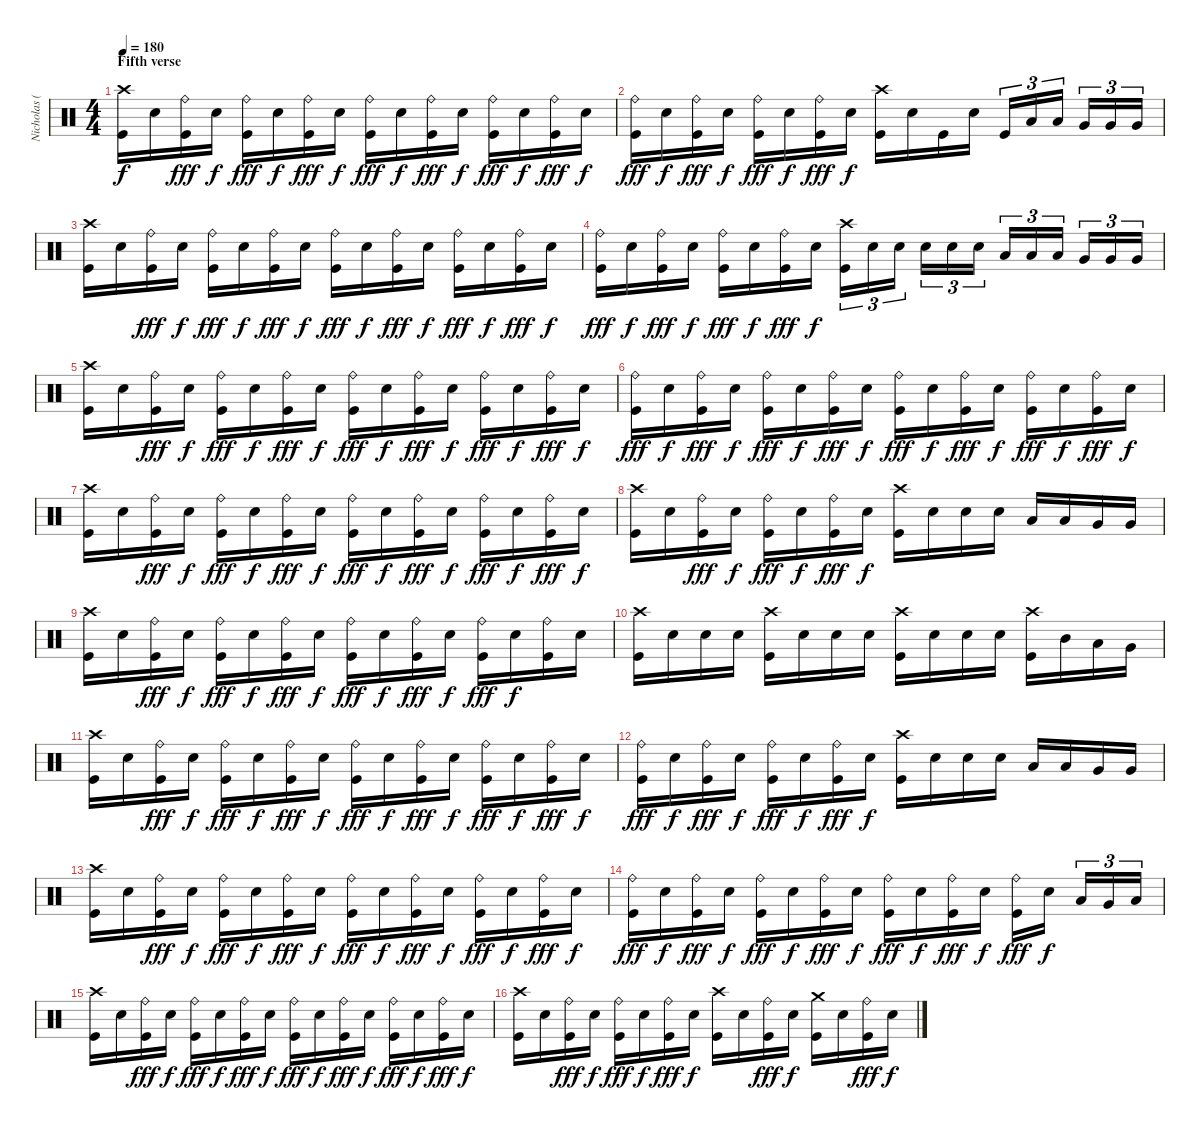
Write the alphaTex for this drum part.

\track ("Nicholas (Drums)" "Nicholas (") {instrument percussion}
\staff {score}
\articulation defaults
\ts (4 4)
\section ("" "Fifth verse")
\tempo 180
\clef neutral
\ks c
("Crash high (hit)" "Kick (hit)").16{dy f} "Electric Snare (hit)".16 ("Ride (bell)" "Kick (hit)").16{dy fff} "Electric Snare (hit)".16{dy f} ("Ride (bell)" "Kick (hit)").16{dy fff} "Electric Snare (hit)".16{dy f} ("Ride (bell)" "Kick (hit)").16{dy fff} "Electric Snare (hit)".16{dy f} ("Ride (bell)" "Kick (hit)").16{dy fff} "Electric Snare (hit)".16{dy f} ("Ride (bell)" "Kick (hit)").16{dy fff} "Electric Snare (hit)".16{dy f} ("Ride (bell)" "Kick (hit)").16{dy fff} "Electric Snare (hit)".16{dy f} ("Ride (bell)" "Kick (hit)").16{dy fff} "Electric Snare (hit)".16{dy f} |
("Ride (bell)" "Kick (hit)").16{dy fff} "Electric Snare (hit)".16{dy f} ("Ride (bell)" "Kick (hit)").16{dy fff} "Electric Snare (hit)".16{dy f} ("Ride (bell)" "Kick (hit)").16{dy fff} "Electric Snare (hit)".16{dy f} ("Ride (bell)" "Kick (hit)").16{dy fff} "Electric Snare (hit)".16{dy f} ("Crash high (hit)" "Kick (hit)").16 "Electric Snare (hit)".16 "Kick (hit)".16 "Electric Snare (hit)".16 "Kick (hit)".16{tu (3 2)} "Low Tom (hit)".16{tu (3 2)} "Low Tom (hit)".16{tu (3 2)} "Very Low Tom (hit)".16{tu (3 2)} "Very Low Tom (hit)".16{tu (3 2)} "Very Low Tom (hit)".16{tu (3 2)} |
("Crash high (hit)" "Kick (hit)").16 "Electric Snare (hit)".16 ("Ride (bell)" "Kick (hit)").16{dy fff} "Electric Snare (hit)".16{dy f} ("Ride (bell)" "Kick (hit)").16{dy fff} "Electric Snare (hit)".16{dy f} ("Ride (bell)" "Kick (hit)").16{dy fff} "Electric Snare (hit)".16{dy f} ("Ride (bell)" "Kick (hit)").16{dy fff} "Electric Snare (hit)".16{dy f} ("Ride (bell)" "Kick (hit)").16{dy fff} "Electric Snare (hit)".16{dy f} ("Ride (bell)" "Kick (hit)").16{dy fff} "Electric Snare (hit)".16{dy f} ("Ride (bell)" "Kick (hit)").16{dy fff} "Electric Snare (hit)".16{dy f} |
("Ride (bell)" "Kick (hit)").16{dy fff} "Electric Snare (hit)".16{dy f} ("Ride (bell)" "Kick (hit)").16{dy fff} "Electric Snare (hit)".16{dy f} ("Ride (bell)" "Kick (hit)").16{dy fff} "Electric Snare (hit)".16{dy f} ("Ride (bell)" "Kick (hit)").16{dy fff} "Electric Snare (hit)".16{dy f} ("Crash high (hit)" "Kick (hit)").16{tu (3 2)} "Electric Snare (hit)".16{tu (3 2)} "Electric Snare (hit)".16{tu (3 2)} "Electric Snare (hit)".16{tu (3 2)} "Electric Snare (hit)".16{tu (3 2)} "Electric Snare (hit)".16{tu (3 2)} "Low Tom (hit)".16{tu (3 2)} "Low Tom (hit)".16{tu (3 2)} "Low Tom (hit)".16{tu (3 2)} "Very Low Tom (hit)".16{tu (3 2)} "Very Low Tom (hit)".16{tu (3 2)} "Very Low Tom (hit)".16{tu (3 2)} |
("Crash high (hit)" "Kick (hit)").16 "Electric Snare (hit)".16 ("Ride (bell)" "Kick (hit)").16{dy fff} "Electric Snare (hit)".16{dy f} ("Ride (bell)" "Kick (hit)").16{dy fff} "Electric Snare (hit)".16{dy f} ("Ride (bell)" "Kick (hit)").16{dy fff} "Electric Snare (hit)".16{dy f} ("Ride (bell)" "Kick (hit)").16{dy fff} "Electric Snare (hit)".16{dy f} ("Ride (bell)" "Kick (hit)").16{dy fff} "Electric Snare (hit)".16{dy f} ("Ride (bell)" "Kick (hit)").16{dy fff} "Electric Snare (hit)".16{dy f} ("Ride (bell)" "Kick (hit)").16{dy fff} "Electric Snare (hit)".16{dy f} |
("Ride (bell)" "Kick (hit)").16{dy fff} "Electric Snare (hit)".16{dy f} ("Ride (bell)" "Kick (hit)").16{dy fff} "Electric Snare (hit)".16{dy f} ("Ride (bell)" "Kick (hit)").16{dy fff} "Electric Snare (hit)".16{dy f} ("Ride (bell)" "Kick (hit)").16{dy fff} "Electric Snare (hit)".16{dy f} ("Ride (bell)" "Kick (hit)").16{dy fff} "Electric Snare (hit)".16{dy f} ("Ride (bell)" "Kick (hit)").16{dy fff} "Electric Snare (hit)".16{dy f} ("Ride (bell)" "Kick (hit)").16{dy fff} "Electric Snare (hit)".16{dy f} ("Ride (bell)" "Kick (hit)").16{dy fff} "Electric Snare (hit)".16{dy f} |
("Crash high (hit)" "Kick (hit)").16 "Electric Snare (hit)".16 ("Ride (bell)" "Kick (hit)").16{dy fff} "Electric Snare (hit)".16{dy f} ("Ride (bell)" "Kick (hit)").16{dy fff} "Electric Snare (hit)".16{dy f} ("Ride (bell)" "Kick (hit)").16{dy fff} "Electric Snare (hit)".16{dy f} ("Ride (bell)" "Kick (hit)").16{dy fff} "Electric Snare (hit)".16{dy f} ("Ride (bell)" "Kick (hit)").16{dy fff} "Electric Snare (hit)".16{dy f} ("Ride (bell)" "Kick (hit)").16{dy fff} "Electric Snare (hit)".16{dy f} ("Ride (bell)" "Kick (hit)").16{dy fff} "Electric Snare (hit)".16{dy f} |
("Crash high (hit)" "Kick (hit)").16 "Electric Snare (hit)".16 ("Ride (bell)" "Kick (hit)").16{dy fff} "Electric Snare (hit)".16{dy f} ("Ride (bell)" "Kick (hit)").16{dy fff} "Electric Snare (hit)".16{dy f} ("Ride (bell)" "Kick (hit)").16{dy fff} "Electric Snare (hit)".16{dy f} ("Crash high (hit)" "Kick (hit)").16 "Electric Snare (hit)".16 "Electric Snare (hit)".16 "Electric Snare (hit)".16 "Low Tom (hit)".16 "Low Tom (hit)".16 "Very Low Tom (hit)".16 "Very Low Tom (hit)".16 |
("Crash high (hit)" "Kick (hit)").16 "Electric Snare (hit)".16 ("Ride (bell)" "Kick (hit)").16{dy fff} "Electric Snare (hit)".16{dy f} ("Ride (bell)" "Kick (hit)").16{dy fff} "Electric Snare (hit)".16{dy f} ("Ride (bell)" "Kick (hit)").16{dy fff} "Electric Snare (hit)".16{dy f} ("Ride (bell)" "Kick (hit)").16{dy fff} "Electric Snare (hit)".16{dy f} ("Ride (bell)" "Kick (hit)").16{dy fff} "Electric Snare (hit)".16{dy f} ("Ride (bell)" "Kick (hit)").16{dy fff} "Electric Snare (hit)".16{dy f} ("Ride (bell)" "Kick (hit)").16 "Electric Snare (hit)".16 |
("Crash high (hit)" "Kick (hit)").16 "Electric Snare (hit)".16 "Electric Snare (hit)".16 "Electric Snare (hit)".16 ("Crash high (hit)" "Kick (hit)").16 "Electric Snare (hit)".16 "Electric Snare (hit)".16 "Electric Snare (hit)".16 ("Crash high (hit)" "Kick (hit)").16 "Electric Snare (hit)".16 "Electric Snare (hit)".16 "Electric Snare (hit)".16 ("Crash high (hit)" "Kick (hit)").16 "Mid Tom (hit)".16 "Low Tom (hit)".16 "Very Low Tom (hit)".16 |
("Crash high (hit)" "Kick (hit)").16 "Electric Snare (hit)".16 ("Ride (bell)" "Kick (hit)").16{dy fff} "Electric Snare (hit)".16{dy f} ("Ride (bell)" "Kick (hit)").16{dy fff} "Electric Snare (hit)".16{dy f} ("Ride (bell)" "Kick (hit)").16{dy fff} "Electric Snare (hit)".16{dy f} ("Ride (bell)" "Kick (hit)").16{dy fff} "Electric Snare (hit)".16{dy f} ("Ride (bell)" "Kick (hit)").16{dy fff} "Electric Snare (hit)".16{dy f} ("Ride (bell)" "Kick (hit)").16{dy fff} "Electric Snare (hit)".16{dy f} ("Ride (bell)" "Kick (hit)").16{dy fff} "Electric Snare (hit)".16{dy f} |
("Ride (bell)" "Kick (hit)").16{dy fff} "Electric Snare (hit)".16{dy f} ("Ride (bell)" "Kick (hit)").16{dy fff} "Electric Snare (hit)".16{dy f} ("Ride (bell)" "Kick (hit)").16{dy fff} "Electric Snare (hit)".16{dy f} ("Ride (bell)" "Kick (hit)").16{dy fff} "Electric Snare (hit)".16{dy f} ("Crash high (hit)" "Kick (hit)").16 "Electric Snare (hit)".16 "Electric Snare (hit)".16 "Electric Snare (hit)".16 "Low Tom (hit)".16 "Low Tom (hit)".16 "Very Low Tom (hit)".16 "Very Low Tom (hit)".16 |
("Crash high (hit)" "Kick (hit)").16 "Electric Snare (hit)".16 ("Ride (bell)" "Kick (hit)").16{dy fff} "Electric Snare (hit)".16{dy f} ("Ride (bell)" "Kick (hit)").16{dy fff} "Electric Snare (hit)".16{dy f} ("Ride (bell)" "Kick (hit)").16{dy fff} "Electric Snare (hit)".16{dy f} ("Ride (bell)" "Kick (hit)").16{dy fff} "Electric Snare (hit)".16{dy f} ("Ride (bell)" "Kick (hit)").16{dy fff} "Electric Snare (hit)".16{dy f} ("Ride (bell)" "Kick (hit)").16{dy fff} "Electric Snare (hit)".16{dy f} ("Ride (bell)" "Kick (hit)").16{dy fff} "Electric Snare (hit)".16{dy f} |
("Ride (bell)" "Kick (hit)").16{dy fff} "Electric Snare (hit)".16{dy f} ("Ride (bell)" "Kick (hit)").16{dy fff} "Electric Snare (hit)".16{dy f} ("Ride (bell)" "Kick (hit)").16{dy fff} "Electric Snare (hit)".16{dy f} ("Ride (bell)" "Kick (hit)").16{dy fff} "Electric Snare (hit)".16{dy f} ("Ride (bell)" "Kick (hit)").16{dy fff} "Electric Snare (hit)".16{dy f} ("Ride (bell)" "Kick (hit)").16{dy fff} "Electric Snare (hit)".16{dy f} ("Ride (bell)" "Kick (hit)").16{dy fff} "Electric Snare (hit)".16{dy f} "Low Tom (hit)".16{tu (3 2)} "Very Low Tom (hit)".16{tu (3 2)} "Low Floor Tom (hit)".16{tu (3 2)} |
("Crash high (hit)" "Kick (hit)").16 "Electric Snare (hit)".16 ("Ride (bell)" "Kick (hit)").16{dy fff} "Electric Snare (hit)".16{dy f} ("Ride (bell)" "Kick (hit)").16{dy fff} "Electric Snare (hit)".16{dy f} ("Ride (bell)" "Kick (hit)").16{dy fff} "Electric Snare (hit)".16{dy f} ("Ride (bell)" "Kick (hit)").16{dy fff} "Electric Snare (hit)".16{dy f} ("Ride (bell)" "Kick (hit)").16{dy fff} "Electric Snare (hit)".16{dy f} ("Ride (bell)" "Kick (hit)").16{dy fff} "Electric Snare (hit)".16{dy f} ("Ride (bell)" "Kick (hit)").16{dy fff} "Electric Snare (hit)".16{dy f} |
("Crash high (hit)" "Kick (hit)").16 "Electric Snare (hit)".16 ("Ride (bell)" "Kick (hit)").16{dy fff} "Electric Snare (hit)".16{dy f} ("Ride (bell)" "Kick (hit)").16{dy fff} "Electric Snare (hit)".16{dy f} ("Ride (bell)" "Kick (hit)").16{dy fff} "Electric Snare (hit)".16{dy f} ("Crash high (hit)" "Kick (hit)").16 "Electric Snare (hit)".16 ("Ride (bell)" "Kick (hit)").16{dy fff} "Electric Snare (hit)".16{dy f} ("Crash medium (hit)" "Kick (hit)").16 "Electric Snare (hit)".16 ("Ride (bell)" "Kick (hit)").16{dy fff} "Electric Snare (hit)".16{dy f}
